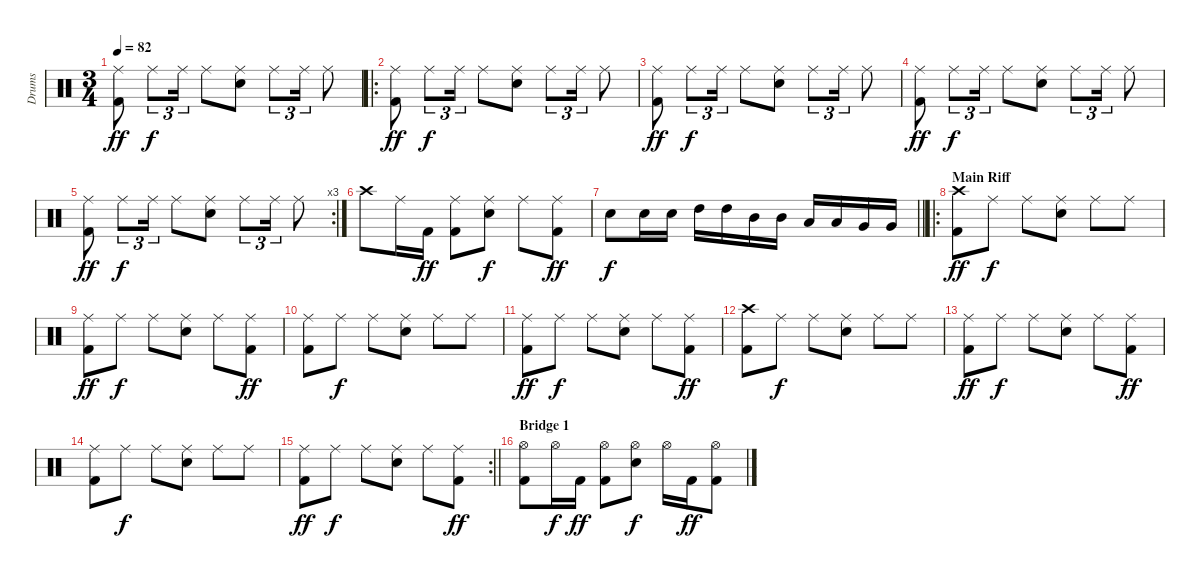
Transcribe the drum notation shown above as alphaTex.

\track ("Drums" "Drums") {instrument percussion}
\staff {score}
\articulation defaults
\ts (3 4)
\tempo 82
\clef neutral
\ks c
("Ride (middle)" "Kick (hit) 2").8{dy ff} "Ride (middle)".8{tu (3 2) dy f} "Ride (middle)".16{tu (3 2)} "Ride (middle)".8 ("Ride (middle)" "Electric Snare (hit)").8 "Ride (middle)".8{tu (3 2)} "Ride (middle)".16{tu (3 2)} "Ride (middle)".8 |
\ro
("Ride (middle)" "Kick (hit) 2").8{dy ff} "Ride (middle)".8{tu (3 2) dy f} "Ride (middle)".16{tu (3 2)} "Ride (middle)".8 ("Ride (middle)" "Electric Snare (hit)").8 "Ride (middle)".8{tu (3 2)} "Ride (middle)".16{tu (3 2)} "Ride (middle)".8 |
("Ride (middle)" "Kick (hit) 2").8{dy ff} "Ride (middle)".8{tu (3 2) dy f} "Ride (middle)".16{tu (3 2)} "Ride (middle)".8 ("Ride (middle)" "Electric Snare (hit)").8 "Ride (middle)".8{tu (3 2)} "Ride (middle)".16{tu (3 2)} "Ride (middle)".8 |
("Ride (middle)" "Kick (hit) 2").8{dy ff} "Ride (middle)".8{tu (3 2) dy f} "Ride (middle)".16{tu (3 2)} "Ride (middle)".8 ("Ride (middle)" "Electric Snare (hit)").8 "Ride (middle)".8{tu (3 2)} "Ride (middle)".16{tu (3 2)} "Ride (middle)".8 |
\rc 3
("Ride (middle)" "Kick (hit) 2").8{dy ff} "Ride (middle)".8{tu (3 2) dy f} "Ride (middle)".16{tu (3 2)} "Ride (middle)".8 ("Ride (middle)" "Electric Snare (hit)").8 "Ride (middle)".8{tu (3 2)} "Ride (middle)".16{tu (3 2)} "Ride (middle)".8 |
"Crash high (hit)".8 "Ride (middle)".16 "Kick (hit) 2".16{dy ff} ("Ride (middle)" "Kick (hit) 2").8 ("Ride (middle)" "Electric Snare (hit)").8{dy f} "Ride (middle)".8 ("Ride (middle)" "Kick (hit) 2").8{dy ff} |
\barLineRight lightlight "Electric Snare (hit)".8{dy f} "Electric Snare (hit)".16 "Electric Snare (hit)".16 "High Tom (hit)".16 "High Tom (hit)".16 "Mid Tom (hit)".16 "Mid Tom (hit)".16 "Low Tom (hit)".16 "Low Tom (hit)".16 "Very Low Tom (hit)".16 "Very Low Tom (hit)".16
|
\ro
\section ("" "Main Riff")
("Crash high (hit)" "Kick (hit) 2").8{dy ff} "Ride (middle)".8{dy f} "Ride (middle)".8 ("Ride (middle)" "Electric Snare (hit)").8 "Ride (middle)".8 "Ride (middle)".8 |
("Ride (middle)" "Kick (hit) 2").8{dy ff} "Ride (middle)".8{dy f} "Ride (middle)".8 ("Ride (middle)" "Electric Snare (hit)").8 "Ride (middle)".8 ("Ride (middle)" "Kick (hit) 2").8{dy ff} |
("Ride (middle)" "Kick (hit) 2").8 "Ride (middle)".8{dy f} "Ride (middle)".8 ("Ride (middle)" "Electric Snare (hit)").8 "Ride (middle)".8 "Ride (middle)".8 |
("Ride (middle)" "Kick (hit) 2").8{dy ff} "Ride (middle)".8{dy f} "Ride (middle)".8 ("Ride (middle)" "Electric Snare (hit)").8 "Ride (middle)".8 ("Ride (middle)" "Kick (hit) 2").8{dy ff} |
("Crash high (hit)" "Kick (hit) 2").8 "Ride (middle)".8{dy f} "Ride (middle)".8 ("Ride (middle)" "Electric Snare (hit)").8 "Ride (middle)".8 "Ride (middle)".8 |
("Ride (middle)" "Kick (hit) 2").8{dy ff} "Ride (middle)".8{dy f} "Ride (middle)".8 ("Ride (middle)" "Electric Snare (hit)").8 "Ride (middle)".8 ("Ride (middle)" "Kick (hit) 2").8{dy ff} |
("Ride (middle)" "Kick (hit) 2").8 "Ride (middle)".8{dy f} "Ride (middle)".8 ("Ride (middle)" "Electric Snare (hit)").8 "Ride (middle)".8 "Ride (middle)".8 |
\rc 2
\barLineRight lightlight
("Ride (middle)" "Kick (hit) 2").8{dy ff} "Ride (middle)".8{dy f} "Ride (middle)".8 ("Ride (middle)" "Electric Snare (hit)").8 "Ride (middle)".8 ("Ride (middle)" "Kick (hit) 2").8{dy ff} |
\section ("" "Bridge 1")
("Hi-Hat (open)" "Kick (hit) 2").8 "Hi-Hat (open)".16{dy f} "Kick (hit) 2".16{dy ff} ("Hi-Hat (open)" "Kick (hit) 2").8 ("Hi-Hat (open)" "Electric Snare (hit)").8{dy f} "Hi-Hat (open)".16 "Kick (hit) 2".16{dy ff} ("Hi-Hat (open)" "Kick (hit) 2").8
